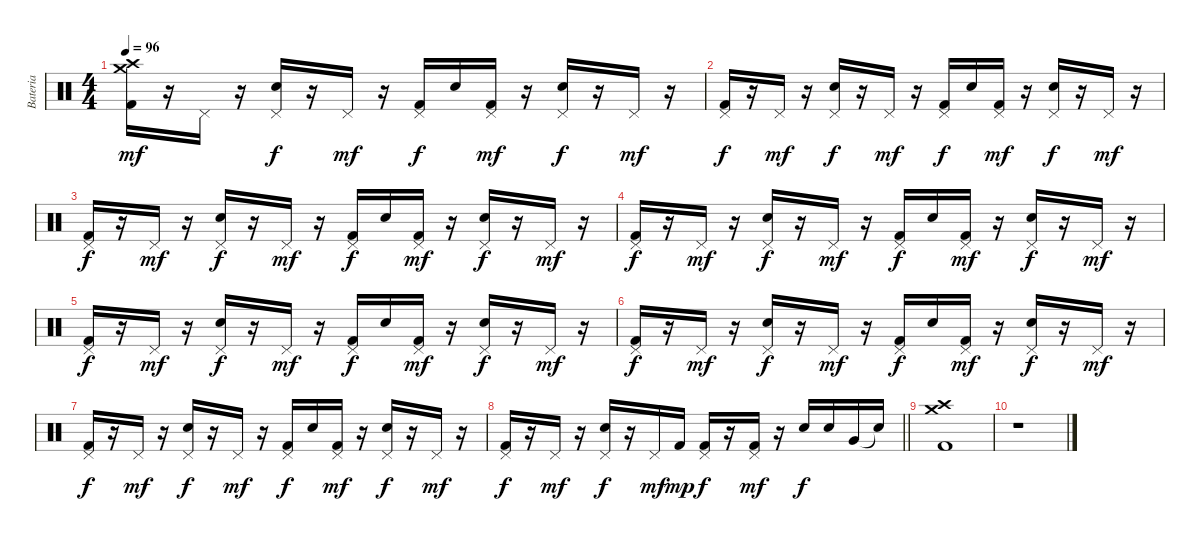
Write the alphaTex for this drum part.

\track ("Bateria" "Bateria") {instrument percussion}
\staff {score}
\articulation defaults
\ts (4 4)
\tempo 96
\clef neutral
\ks c
("Crash medium (hit)" "Crash high (hit)" "Kick (hit) 2").16{dy mf} r.16 "Pedal Hi-Hat (hit)".16 r.16 ("Pedal Hi-Hat (hit)" "Electric Snare (hit)").16{dy f} r.16 "Pedal Hi-Hat (hit)".16{dy mf} r.16 ("Pedal Hi-Hat (hit)" "Kick (hit) 2").16{dy f} "Electric Snare (hit)".16 ("Pedal Hi-Hat (hit)" "Kick (hit) 2").16{dy mf} r.16 ("Pedal Hi-Hat (hit)" "Electric Snare (hit)").16{dy f} r.16 "Pedal Hi-Hat (hit)".16{dy mf} r.16 |
("Pedal Hi-Hat (hit)" "Kick (hit) 2").16{dy f} r.16 "Pedal Hi-Hat (hit)".16{dy mf} r.16 ("Pedal Hi-Hat (hit)" "Electric Snare (hit)").16{dy f} r.16 "Pedal Hi-Hat (hit)".16{dy mf} r.16 ("Pedal Hi-Hat (hit)" "Kick (hit) 2").16{dy f} "Electric Snare (hit)".16 ("Pedal Hi-Hat (hit)" "Kick (hit) 2").16{dy mf} r.16 ("Pedal Hi-Hat (hit)" "Electric Snare (hit)").16{dy f} r.16 "Pedal Hi-Hat (hit)".16{dy mf} r.16 |
("Pedal Hi-Hat (hit)" "Kick (hit) 2").16{dy f} r.16 "Pedal Hi-Hat (hit)".16{dy mf} r.16 ("Pedal Hi-Hat (hit)" "Electric Snare (hit)").16{dy f} r.16 "Pedal Hi-Hat (hit)".16{dy mf} r.16 ("Pedal Hi-Hat (hit)" "Kick (hit) 2").16{dy f} "Electric Snare (hit)".16 ("Pedal Hi-Hat (hit)" "Kick (hit) 2").16{dy mf} r.16 ("Pedal Hi-Hat (hit)" "Electric Snare (hit)").16{dy f} r.16 "Pedal Hi-Hat (hit)".16{dy mf} r.16 |
("Pedal Hi-Hat (hit)" "Kick (hit) 2").16{dy f} r.16 "Pedal Hi-Hat (hit)".16{dy mf} r.16 ("Pedal Hi-Hat (hit)" "Electric Snare (hit)").16{dy f} r.16 "Pedal Hi-Hat (hit)".16{dy mf} r.16 ("Pedal Hi-Hat (hit)" "Kick (hit) 2").16{dy f} "Electric Snare (hit)".16 ("Pedal Hi-Hat (hit)" "Kick (hit) 2").16{dy mf} r.16 ("Pedal Hi-Hat (hit)" "Electric Snare (hit)").16{dy f} r.16 "Pedal Hi-Hat (hit)".16{dy mf} r.16 |
("Pedal Hi-Hat (hit)" "Kick (hit) 2").16{dy f} r.16 "Pedal Hi-Hat (hit)".16{dy mf} r.16 ("Pedal Hi-Hat (hit)" "Electric Snare (hit)").16{dy f} r.16 "Pedal Hi-Hat (hit)".16{dy mf} r.16 ("Pedal Hi-Hat (hit)" "Kick (hit) 2").16{dy f} "Electric Snare (hit)".16 ("Pedal Hi-Hat (hit)" "Kick (hit) 2").16{dy mf} r.16 ("Pedal Hi-Hat (hit)" "Electric Snare (hit)").16{dy f} r.16 "Pedal Hi-Hat (hit)".16{dy mf} r.16 |
("Pedal Hi-Hat (hit)" "Kick (hit) 2").16{dy f} r.16 "Pedal Hi-Hat (hit)".16{dy mf} r.16 ("Pedal Hi-Hat (hit)" "Electric Snare (hit)").16{dy f} r.16 "Pedal Hi-Hat (hit)".16{dy mf} r.16 ("Pedal Hi-Hat (hit)" "Kick (hit) 2").16{dy f} "Electric Snare (hit)".16 ("Pedal Hi-Hat (hit)" "Kick (hit) 2").16{dy mf} r.16 ("Pedal Hi-Hat (hit)" "Electric Snare (hit)").16{dy f} r.16 "Pedal Hi-Hat (hit)".16{dy mf} r.16 |
("Pedal Hi-Hat (hit)" "Kick (hit) 2").16{dy f} r.16 "Pedal Hi-Hat (hit)".16{dy mf} r.16 ("Pedal Hi-Hat (hit)" "Electric Snare (hit)").16{dy f} r.16 "Pedal Hi-Hat (hit)".16{dy mf} r.16 ("Pedal Hi-Hat (hit)" "Kick (hit) 2").16{dy f} "Electric Snare (hit)".16 ("Pedal Hi-Hat (hit)" "Kick (hit) 2").16{dy mf} r.16 ("Pedal Hi-Hat (hit)" "Electric Snare (hit)").16{dy f} r.16 "Pedal Hi-Hat (hit)".16{dy mf} r.16 |
\barLineRight lightlight
("Pedal Hi-Hat (hit)" "Kick (hit) 2").16{dy f} r.16 "Pedal Hi-Hat (hit)".16{dy mf} r.16 ("Pedal Hi-Hat (hit)" "Electric Snare (hit)").16{dy f} r.16 "Pedal Hi-Hat (hit)".16{dy mf} "Kick (hit) 2".16{dy mp} ("Pedal Hi-Hat (hit)" "Kick (hit) 2").16{dy f} r.16 ("Pedal Hi-Hat (hit)" "Kick (hit) 2").16{dy mf} r.16 "Electric Snare (hit)".16{dy f} "Electric Snare (hit)".16 "Very Low Tom (hit)".16 "Snare (hit)"{t}.16 |
("Crash medium (hit)" "Crash high (hit)" "Kick (hit) 2").1 |
r.1
